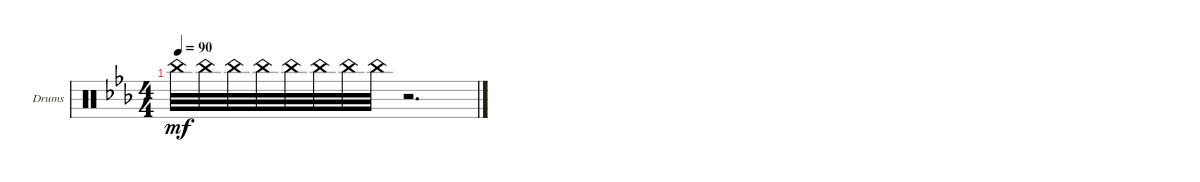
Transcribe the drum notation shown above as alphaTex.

\defaultSystemsLayout 4
\bracketExtendMode groupsimilarinstruments
\firstSystemTrackNameOrientation horizontal
\otherSystemsTrackNameOrientation horizontal
\track ("Drumkit" "Drums") {multiBarRest instrument percussion}
\staff {score}
\articulation defaults
\ts (4 4)
\tempo 90
\clef neutral
\ks cminor "China (hit)".32{dy mf} "China (hit)".32 "China (hit)".32 "China (hit)".32 "China (hit)".32 "China (hit)".32 "China (hit)".32 "China (hit)".32
r.2{d}
